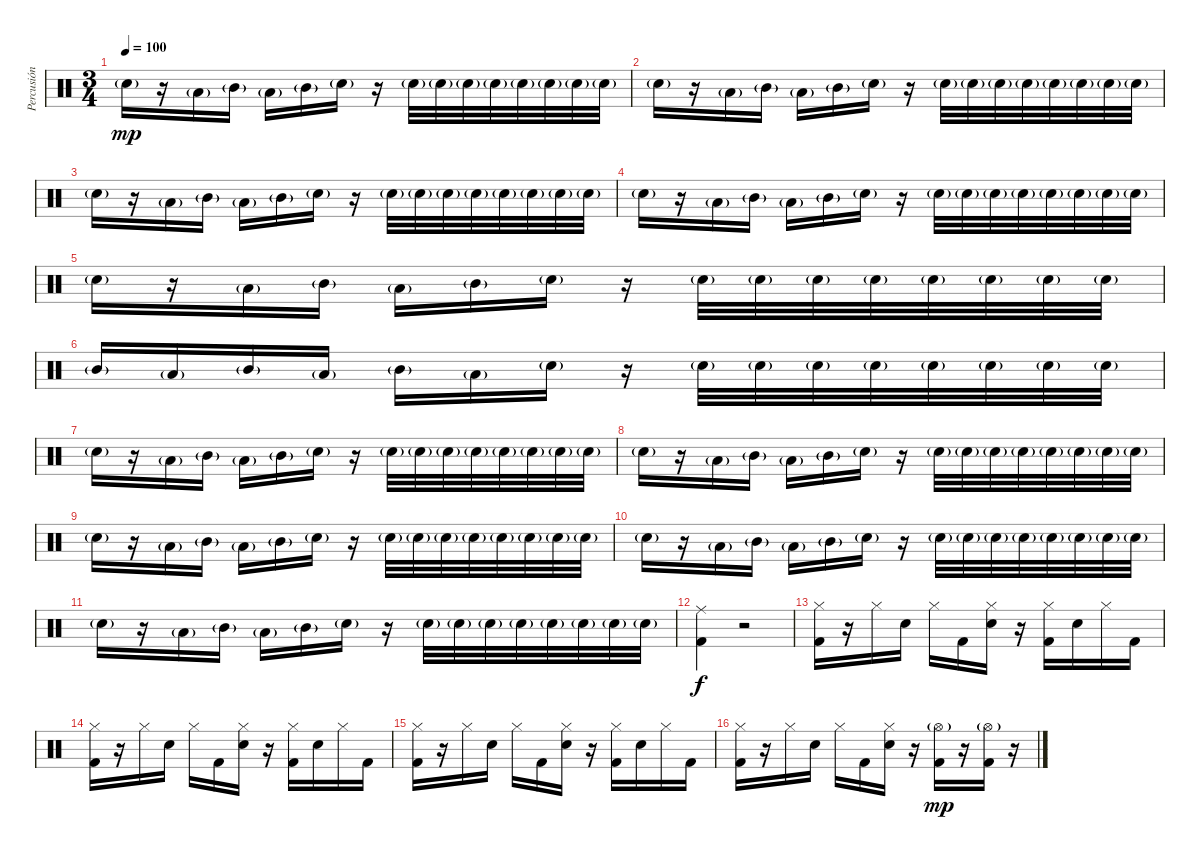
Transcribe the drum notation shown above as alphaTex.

\track ("Percusión" "Percusión") {instrument percussion}
\staff {score}
\articulation defaults
\ts (3 4)
\tempo 100
\clef neutral
\ks c "Snare (hit) 2"{g}.16{dy mp}
r.16 "Low Tom (hit)"{g}.16 "Mid Tom (hit)"{g}.16 "Low Tom (hit)"{g}.16 "Mid Tom (hit)"{g}.16 "Snare (hit) 2"{g}.16 r.16 "Snare (hit) 2"{g}.32 "Snare (hit) 2"{g}.32 "Snare (hit) 2"{g}.32 "Snare (hit) 2"{g}.32 "Snare (hit) 2"{g}.32 "Snare (hit) 2"{g}.32 "Snare (hit) 2"{g}.32 "Snare (hit) 2"{g}.32 |
"Snare (hit) 2"{g}.16 r.16 "Low Tom (hit)"{g}.16 "Mid Tom (hit)"{g}.16 "Low Tom (hit)"{g}.16 "Mid Tom (hit)"{g}.16 "Snare (hit) 2"{g}.16 r.16 "Snare (hit) 2"{g}.32 "Snare (hit) 2"{g}.32 "Snare (hit) 2"{g}.32 "Snare (hit) 2"{g}.32 "Snare (hit) 2"{g}.32 "Snare (hit) 2"{g}.32 "Snare (hit) 2"{g}.32 "Snare (hit) 2"{g}.32 |
"Snare (hit) 2"{g}.16 r.16 "Low Tom (hit)"{g}.16 "Mid Tom (hit)"{g}.16 "Low Tom (hit)"{g}.16 "Mid Tom (hit)"{g}.16 "Snare (hit) 2"{g}.16 r.16 "Snare (hit) 2"{g}.32 "Snare (hit) 2"{g}.32 "Snare (hit) 2"{g}.32 "Snare (hit) 2"{g}.32 "Snare (hit) 2"{g}.32 "Snare (hit) 2"{g}.32 "Snare (hit) 2"{g}.32 "Snare (hit) 2"{g}.32 |
"Snare (hit) 2"{g}.16 r.16 "Low Tom (hit)"{g}.16 "Mid Tom (hit)"{g}.16 "Low Tom (hit)"{g}.16 "Mid Tom (hit)"{g}.16 "Snare (hit) 2"{g}.16 r.16 "Snare (hit) 2"{g}.32 "Snare (hit) 2"{g}.32 "Snare (hit) 2"{g}.32 "Snare (hit) 2"{g}.32 "Snare (hit) 2"{g}.32 "Snare (hit) 2"{g}.32 "Snare (hit) 2"{g}.32 "Snare (hit) 2"{g}.32 |
"Snare (hit) 2"{g}.16 r.16 "Low Tom (hit)"{g}.16 "Mid Tom (hit)"{g}.16 "Low Tom (hit)"{g}.16 "Mid Tom (hit)"{g}.16 "Snare (hit) 2"{g}.16 r.16 "Snare (hit) 2"{g}.32 "Snare (hit) 2"{g}.32 "Snare (hit) 2"{g}.32 "Snare (hit) 2"{g}.32 "Snare (hit) 2"{g}.32 "Snare (hit) 2"{g}.32 "Snare (hit) 2"{g}.32 "Snare (hit) 2"{g}.32 |
"Mid Tom (hit)"{g}.16 "Low Tom (hit)"{g}.16 "Mid Tom (hit)"{g}.16 "Low Tom (hit)"{g}.16 "Mid Tom (hit)"{g}.16 "Low Tom (hit)"{g}.16 "Snare (hit) 2"{g}.16 r.16 "Snare (hit) 2"{g}.32 "Snare (hit) 2"{g}.32 "Snare (hit) 2"{g}.32 "Snare (hit) 2"{g}.32 "Snare (hit) 2"{g}.32 "Snare (hit) 2"{g}.32 "Snare (hit) 2"{g}.32 "Snare (hit) 2"{g}.32 |
"Snare (hit) 2"{g}.16 r.16 "Low Tom (hit)"{g}.16 "Mid Tom (hit)"{g}.16 "Low Tom (hit)"{g}.16 "Mid Tom (hit)"{g}.16 "Snare (hit) 2"{g}.16 r.16 "Snare (hit) 2"{g}.32 "Snare (hit) 2"{g}.32 "Snare (hit) 2"{g}.32 "Snare (hit) 2"{g}.32 "Snare (hit) 2"{g}.32 "Snare (hit) 2"{g}.32 "Snare (hit) 2"{g}.32 "Snare (hit) 2"{g}.32 |
"Snare (hit) 2"{g}.16 r.16 "Low Tom (hit)"{g}.16 "Mid Tom (hit)"{g}.16 "Low Tom (hit)"{g}.16 "Mid Tom (hit)"{g}.16 "Snare (hit) 2"{g}.16 r.16 "Snare (hit) 2"{g}.32 "Snare (hit) 2"{g}.32 "Snare (hit) 2"{g}.32 "Snare (hit) 2"{g}.32 "Snare (hit) 2"{g}.32 "Snare (hit) 2"{g}.32 "Snare (hit) 2"{g}.32 "Snare (hit) 2"{g}.32 |
"Snare (hit) 2"{g}.16 r.16 "Low Tom (hit)"{g}.16 "Mid Tom (hit)"{g}.16 "Low Tom (hit)"{g}.16 "Mid Tom (hit)"{g}.16 "Snare (hit) 2"{g}.16 r.16 "Snare (hit) 2"{g}.32 "Snare (hit) 2"{g}.32 "Snare (hit) 2"{g}.32 "Snare (hit) 2"{g}.32 "Snare (hit) 2"{g}.32 "Snare (hit) 2"{g}.32 "Snare (hit) 2"{g}.32 "Snare (hit) 2"{g}.32 |
"Snare (hit) 2"{g}.16 r.16 "Low Tom (hit)"{g}.16 "Mid Tom (hit)"{g}.16 "Low Tom (hit)"{g}.16 "Mid Tom (hit)"{g}.16 "Snare (hit) 2"{g}.16 r.16 "Snare (hit) 2"{g}.32 "Snare (hit) 2"{g}.32 "Snare (hit) 2"{g}.32 "Snare (hit) 2"{g}.32 "Snare (hit) 2"{g}.32 "Snare (hit) 2"{g}.32 "Snare (hit) 2"{g}.32 "Snare (hit) 2"{g}.32 |
"Snare (hit) 2"{g}.16 r.16 "Low Tom (hit)"{g}.16 "Mid Tom (hit)"{g}.16 "Low Tom (hit)"{g}.16 "Mid Tom (hit)"{g}.16 "Snare (hit) 2"{g}.16 r.16 "Snare (hit) 2"{g}.32 "Snare (hit) 2"{g}.32 "Snare (hit) 2"{g}.32 "Snare (hit) 2"{g}.32 "Snare (hit) 2"{g}.32 "Snare (hit) 2"{g}.32 "Snare (hit) 2"{g}.32 "Snare (hit) 2"{g}.32 |
("Ride (middle)" "Kick (hit) 2").4{dy f} r.2 |
("Hi-Hat (closed)" "Kick (hit) 2").16 r.16 "Hi-Hat (closed)".16 "Snare (hit) 2".16 "Hi-Hat (closed)".16 "Kick (hit) 2".16 ("Hi-Hat (closed)" "Snare (hit) 2").16 r.16 ("Hi-Hat (closed)" "Kick (hit) 2").16 "Snare (hit) 2".16 "Hi-Hat (closed)".16 "Kick (hit) 2".16 |
("Hi-Hat (closed)" "Kick (hit) 2").16 r.16 "Hi-Hat (closed)".16 "Snare (hit) 2".16 "Hi-Hat (closed)".16 "Kick (hit) 2".16 ("Hi-Hat (closed)" "Snare (hit) 2").16 r.16 ("Hi-Hat (closed)" "Kick (hit) 2").16 "Snare (hit) 2".16 "Hi-Hat (closed)".16 "Kick (hit) 2".16 |
("Hi-Hat (closed)" "Kick (hit) 2").16 r.16 "Hi-Hat (closed)".16 "Snare (hit) 2".16 "Hi-Hat (closed)".16 "Kick (hit) 2".16 ("Hi-Hat (closed)" "Snare (hit) 2").16 r.16 ("Hi-Hat (closed)" "Kick (hit) 2").16 "Snare (hit) 2".16 "Hi-Hat (closed)".16 "Kick (hit) 2".16 |
("Hi-Hat (closed)" "Kick (hit) 2").16 r.16 "Hi-Hat (closed)".16 "Snare (hit) 2".16 "Hi-Hat (closed)".16 "Kick (hit) 2".16 ("Hi-Hat (closed)" "Snare (hit) 2").16 r.16 ("Hi-Hat (open)"{g} "Kick (hit) 2").16{dy mp} r.16 ("Hi-Hat (open)"{g} "Kick (hit) 2").16 r.16
